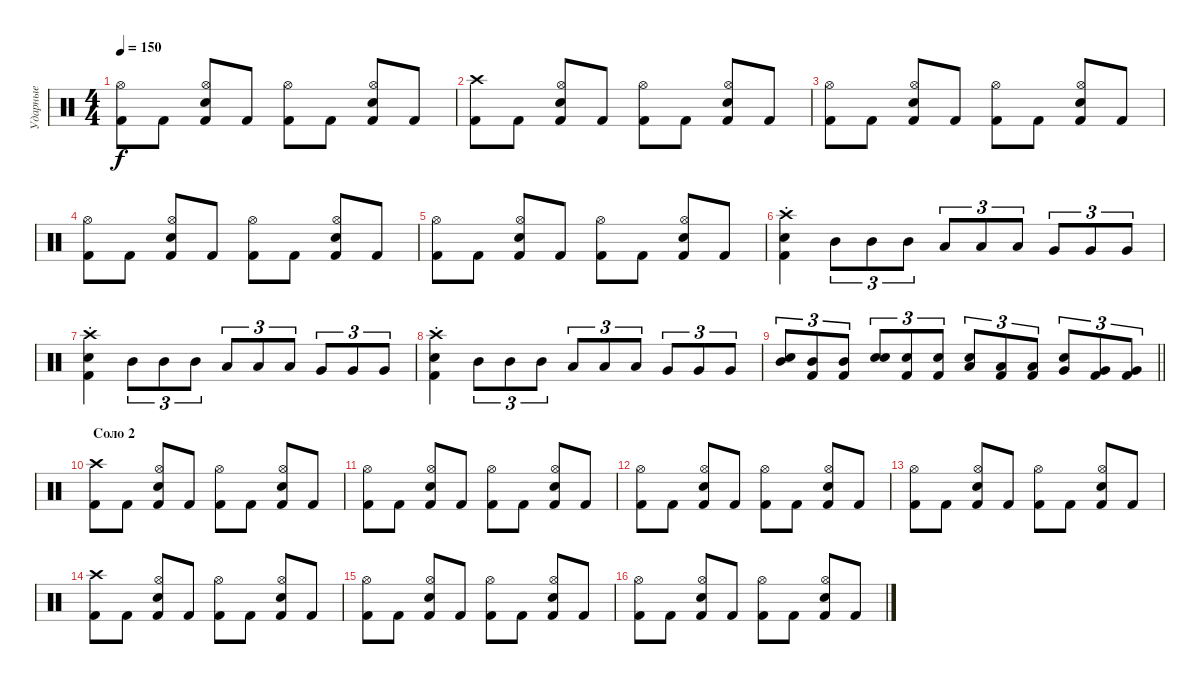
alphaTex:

\track ("Ударные" "Ударные") {instrument percussion}
\staff {score}
\articulation defaults
\ts (4 4)
\tempo 150
\clef neutral
\ks c
("Kick (hit) 2" "Hi-Hat (open)").8{dy f} "Kick (hit) 2".8 ("Snare (hit) 2" "Kick (hit) 2" "Hi-Hat (open)").8 "Kick (hit) 2".8 ("Kick (hit) 2" "Hi-Hat (open)").8 "Kick (hit) 2".8 ("Snare (hit) 2" "Kick (hit) 2" "Hi-Hat (open)").8 "Kick (hit) 2".8 |
("Kick (hit) 2" "Crash high (hit)").8 "Kick (hit) 2".8 ("Snare (hit) 2" "Kick (hit) 2" "Hi-Hat (open)").8 "Kick (hit) 2".8 ("Kick (hit) 2" "Hi-Hat (open)").8 "Kick (hit) 2".8 ("Snare (hit) 2" "Kick (hit) 2" "Hi-Hat (open)").8 "Kick (hit) 2".8 |
("Kick (hit) 2" "Hi-Hat (open)").8 "Kick (hit) 2".8 ("Snare (hit) 2" "Kick (hit) 2" "Hi-Hat (open)").8 "Kick (hit) 2".8 ("Kick (hit) 2" "Hi-Hat (open)").8 "Kick (hit) 2".8 ("Snare (hit) 2" "Kick (hit) 2" "Hi-Hat (open)").8 "Kick (hit) 2".8 |
("Kick (hit) 2" "Hi-Hat (open)").8 "Kick (hit) 2".8 ("Snare (hit) 2" "Kick (hit) 2" "Hi-Hat (open)").8 "Kick (hit) 2".8 ("Kick (hit) 2" "Hi-Hat (open)").8 "Kick (hit) 2".8 ("Snare (hit) 2" "Kick (hit) 2" "Hi-Hat (open)").8 "Kick (hit) 2".8 |
("Kick (hit) 2" "Hi-Hat (open)").8 "Kick (hit) 2".8 ("Snare (hit) 2" "Kick (hit) 2" "Hi-Hat (open)").8 "Kick (hit) 2".8 ("Kick (hit) 2" "Hi-Hat (open)").8 "Kick (hit) 2".8 ("Snare (hit) 2" "Kick (hit) 2" "Hi-Hat (open)").8 "Kick (hit) 2".8 |
("Kick (hit) 2"{st} "Snare (hit) 2"{st} "Crash high (hit)"{st}).4 "Mid Tom (hit)".8{tu (3 2)} "Mid Tom (hit)".8{tu (3 2)} "Mid Tom (hit)".8{tu (3 2)} "Low Tom (hit)".8{tu (3 2)} "Low Tom (hit)".8{tu (3 2)} "Low Tom (hit)".8{tu (3 2)} "Very Low Tom (hit)".8{tu (3 2)} "Very Low Tom (hit)".8{tu (3 2)} "Very Low Tom (hit)".8{tu (3 2)} |
("Kick (hit) 2"{st} "Snare (hit) 2"{st} "Crash high (hit)"{st}).4 "Mid Tom (hit)".8{tu (3 2)} "Mid Tom (hit)".8{tu (3 2)} "Mid Tom (hit)".8{tu (3 2)} "Low Tom (hit)".8{tu (3 2)} "Low Tom (hit)".8{tu (3 2)} "Low Tom (hit)".8{tu (3 2)} "Very Low Tom (hit)".8{tu (3 2)} "Very Low Tom (hit)".8{tu (3 2)} "Very Low Tom (hit)".8{tu (3 2)} |
("Kick (hit) 2"{st} "Snare (hit) 2"{st} "Crash high (hit)"{st}).4 "Mid Tom (hit)".8{tu (3 2)} "Mid Tom (hit)".8{tu (3 2)} "Mid Tom (hit)".8{tu (3 2)} "Low Tom (hit)".8{tu (3 2)} "Low Tom (hit)".8{tu (3 2)} "Low Tom (hit)".8{tu (3 2)} "Very Low Tom (hit)".8{tu (3 2)} "Very Low Tom (hit)".8{tu (3 2)} "Very Low Tom (hit)".8{tu (3 2)} |
\barLineRight lightlight
("Mid Tom (hit)" "Snare (hit) 2").8{tu (3 2)} ("Mid Tom (hit)" "Kick (hit) 2").8{tu (3 2)} ("Mid Tom (hit)" "Kick (hit) 2").8{tu (3 2)} ("Electric Snare (hit)" "Snare (hit) 2").8{tu (3 2)} ("Electric Snare (hit)" "Kick (hit) 2").8{tu (3 2)} ("Electric Snare (hit)" "Kick (hit) 2").8{tu (3 2)} ("Low Tom (hit)" "Snare (hit) 2").8{tu (3 2)} ("Low Tom (hit)" "Kick (hit) 2").8{tu (3 2)} ("Low Tom (hit)" "Kick (hit) 2").8{tu (3 2)} ("Very Low Tom (hit)" "Snare (hit) 2").8{tu (3 2)} ("Very Low Tom (hit)" "Kick (hit) 2").8{tu (3 2)} ("Very Low Tom (hit)" "Kick (hit) 2").8{tu (3 2)} |
\section ("" " Соло 2")
("Kick (hit) 2" "Crash high (hit)").8 "Kick (hit) 2".8 ("Snare (hit) 2" "Kick (hit) 2" "Hi-Hat (open)").8 "Kick (hit) 2".8 ("Kick (hit) 2" "Hi-Hat (open)").8 "Kick (hit) 2".8 ("Snare (hit) 2" "Kick (hit) 2" "Hi-Hat (open)").8 "Kick (hit) 2".8 |
("Kick (hit) 2" "Hi-Hat (open)").8 "Kick (hit) 2".8 ("Snare (hit) 2" "Kick (hit) 2" "Hi-Hat (open)").8 "Kick (hit) 2".8 ("Kick (hit) 2" "Hi-Hat (open)").8 "Kick (hit) 2".8 ("Snare (hit) 2" "Kick (hit) 2" "Hi-Hat (open)").8 "Kick (hit) 2".8 |
("Kick (hit) 2" "Hi-Hat (open)").8 "Kick (hit) 2".8 ("Snare (hit) 2" "Kick (hit) 2" "Hi-Hat (open)").8 "Kick (hit) 2".8 ("Kick (hit) 2" "Hi-Hat (open)").8 "Kick (hit) 2".8 ("Snare (hit) 2" "Kick (hit) 2" "Hi-Hat (open)").8 "Kick (hit) 2".8 |
("Kick (hit) 2" "Hi-Hat (open)").8 "Kick (hit) 2".8 ("Snare (hit) 2" "Kick (hit) 2" "Hi-Hat (open)").8 "Kick (hit) 2".8 ("Kick (hit) 2" "Hi-Hat (open)").8 "Kick (hit) 2".8 ("Snare (hit) 2" "Kick (hit) 2" "Hi-Hat (open)").8 "Kick (hit) 2".8 |
("Kick (hit) 2" "Crash high (hit)").8 "Kick (hit) 2".8 ("Snare (hit) 2" "Kick (hit) 2" "Hi-Hat (open)").8 "Kick (hit) 2".8 ("Kick (hit) 2" "Hi-Hat (open)").8 "Kick (hit) 2".8 ("Snare (hit) 2" "Kick (hit) 2" "Hi-Hat (open)").8 "Kick (hit) 2".8 |
("Kick (hit) 2" "Hi-Hat (open)").8 "Kick (hit) 2".8 ("Snare (hit) 2" "Kick (hit) 2" "Hi-Hat (open)").8 "Kick (hit) 2".8 ("Kick (hit) 2" "Hi-Hat (open)").8 "Kick (hit) 2".8 ("Snare (hit) 2" "Kick (hit) 2" "Hi-Hat (open)").8 "Kick (hit) 2".8 |
("Kick (hit) 2" "Hi-Hat (open)").8 "Kick (hit) 2".8 ("Snare (hit) 2" "Kick (hit) 2" "Hi-Hat (open)").8 "Kick (hit) 2".8 ("Kick (hit) 2" "Hi-Hat (open)").8 "Kick (hit) 2".8 ("Snare (hit) 2" "Kick (hit) 2" "Hi-Hat (open)").8 "Kick (hit) 2".8
